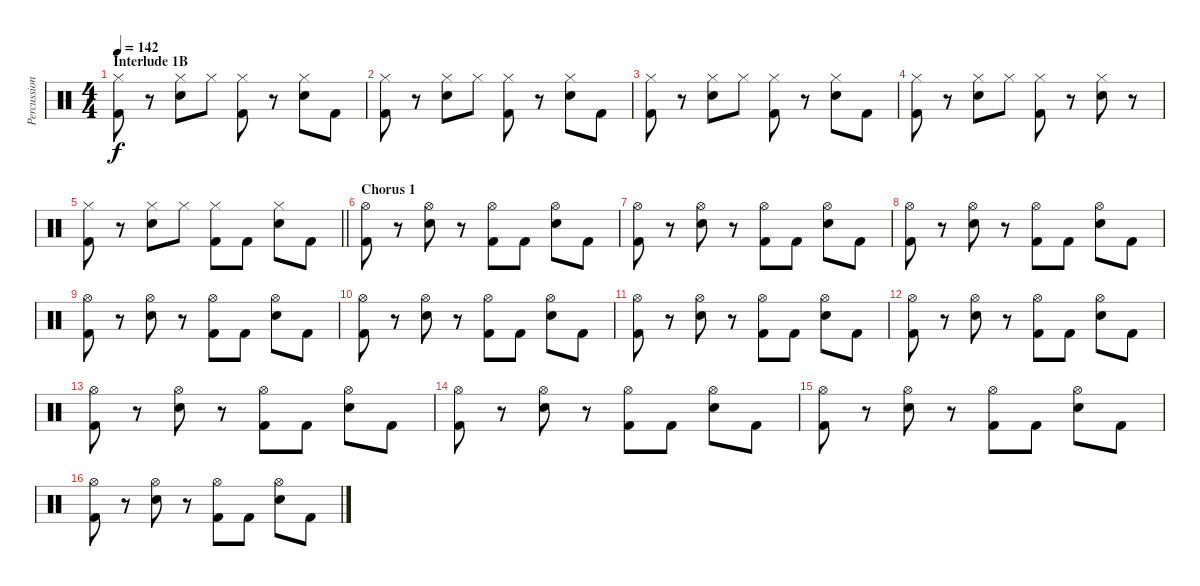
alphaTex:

\track ("Percussion" "Percussion") {instrument percussion}
\staff {score}
\articulation defaults
\ts (4 4)
\section ("" "Interlude 1B")
\tempo 142
\clef neutral
\ks c
("Hi-Hat (closed)" "Kick (hit) 2").8{dy f} r.8 ("Hi-Hat (closed)" "Electric Snare (hit)").8 "Hi-Hat (closed)".8 ("Hi-Hat (closed)" "Kick (hit) 2").8 r.8 ("Hi-Hat (closed)" "Electric Snare (hit)").8 "Kick (hit) 2".8 |
("Hi-Hat (closed)" "Kick (hit) 2").8 r.8 ("Hi-Hat (closed)" "Electric Snare (hit)").8 "Hi-Hat (closed)".8 ("Hi-Hat (closed)" "Kick (hit) 2").8 r.8 ("Hi-Hat (closed)" "Electric Snare (hit)").8 "Kick (hit) 2".8 |
("Hi-Hat (closed)" "Kick (hit) 2").8 r.8 ("Hi-Hat (closed)" "Electric Snare (hit)").8 "Hi-Hat (closed)".8 ("Hi-Hat (closed)" "Kick (hit) 2").8 r.8 ("Hi-Hat (closed)" "Electric Snare (hit)").8 "Kick (hit) 2".8 |
("Hi-Hat (closed)" "Kick (hit) 2").8 r.8 ("Hi-Hat (closed)" "Electric Snare (hit)").8 "Hi-Hat (closed)".8 ("Hi-Hat (closed)" "Kick (hit) 2").8 r.8 ("Hi-Hat (closed)" "Electric Snare (hit)").8 r.8 |
\barLineRight lightlight
("Hi-Hat (closed)" "Kick (hit) 2").8 r.8 ("Hi-Hat (closed)" "Electric Snare (hit)").8 "Hi-Hat (closed)".8 ("Hi-Hat (closed)" "Kick (hit) 2").8 "Kick (hit) 2".8 ("Hi-Hat (closed)" "Electric Snare (hit)").8 "Kick (hit) 2".8 |
\section ("" "Chorus 1")
("Hi-Hat (open)" "Kick (hit) 2").8 r.8 ("Hi-Hat (open)" "Electric Snare (hit)").8 r.8 ("Hi-Hat (open)" "Kick (hit) 2").8 "Kick (hit) 2".8 ("Hi-Hat (open)" "Electric Snare (hit)").8 "Kick (hit) 2".8 |
("Hi-Hat (open)" "Kick (hit) 2").8 r.8 ("Hi-Hat (open)" "Electric Snare (hit)").8 r.8 ("Hi-Hat (open)" "Kick (hit) 2").8 "Kick (hit) 2".8 ("Hi-Hat (open)" "Electric Snare (hit)").8 "Kick (hit) 2".8 |
("Hi-Hat (open)" "Kick (hit) 2").8 r.8 ("Hi-Hat (open)" "Electric Snare (hit)").8 r.8 ("Hi-Hat (open)" "Kick (hit) 2").8 "Kick (hit) 2".8 ("Hi-Hat (open)" "Electric Snare (hit)").8 "Kick (hit) 2".8 |
("Hi-Hat (open)" "Kick (hit) 2").8 r.8 ("Hi-Hat (open)" "Electric Snare (hit)").8 r.8 ("Hi-Hat (open)" "Kick (hit) 2").8 "Kick (hit) 2".8 ("Hi-Hat (open)" "Electric Snare (hit)").8 "Kick (hit) 2".8 |
("Hi-Hat (open)" "Kick (hit) 2").8 r.8 ("Hi-Hat (open)" "Electric Snare (hit)").8 r.8 ("Hi-Hat (open)" "Kick (hit) 2").8 "Kick (hit) 2".8 ("Hi-Hat (open)" "Electric Snare (hit)").8 "Kick (hit) 2".8 |
("Hi-Hat (open)" "Kick (hit) 2").8 r.8 ("Hi-Hat (open)" "Electric Snare (hit)").8 r.8 ("Hi-Hat (open)" "Kick (hit) 2").8 "Kick (hit) 2".8 ("Hi-Hat (open)" "Electric Snare (hit)").8 "Kick (hit) 2".8 |
("Hi-Hat (open)" "Kick (hit) 2").8 r.8 ("Hi-Hat (open)" "Electric Snare (hit)").8 r.8 ("Hi-Hat (open)" "Kick (hit) 2").8 "Kick (hit) 2".8 ("Hi-Hat (open)" "Electric Snare (hit)").8 "Kick (hit) 2".8 |
("Hi-Hat (open)" "Kick (hit) 2").8 r.8 ("Hi-Hat (open)" "Electric Snare (hit)").8 r.8 ("Hi-Hat (open)" "Kick (hit) 2").8 "Kick (hit) 2".8 ("Hi-Hat (open)" "Electric Snare (hit)").8 "Kick (hit) 2".8 |
("Hi-Hat (open)" "Kick (hit) 2").8 r.8 ("Hi-Hat (open)" "Electric Snare (hit)").8 r.8 ("Hi-Hat (open)" "Kick (hit) 2").8 "Kick (hit) 2".8 ("Hi-Hat (open)" "Electric Snare (hit)").8 "Kick (hit) 2".8 |
("Hi-Hat (open)" "Kick (hit) 2").8 r.8 ("Hi-Hat (open)" "Electric Snare (hit)").8 r.8 ("Hi-Hat (open)" "Kick (hit) 2").8 "Kick (hit) 2".8 ("Hi-Hat (open)" "Electric Snare (hit)").8 "Kick (hit) 2".8 |
("Hi-Hat (open)" "Kick (hit) 2").8 r.8 ("Hi-Hat (open)" "Electric Snare (hit)").8 r.8 ("Hi-Hat (open)" "Kick (hit) 2").8 "Kick (hit) 2".8 ("Hi-Hat (open)" "Electric Snare (hit)").8 "Kick (hit) 2".8
